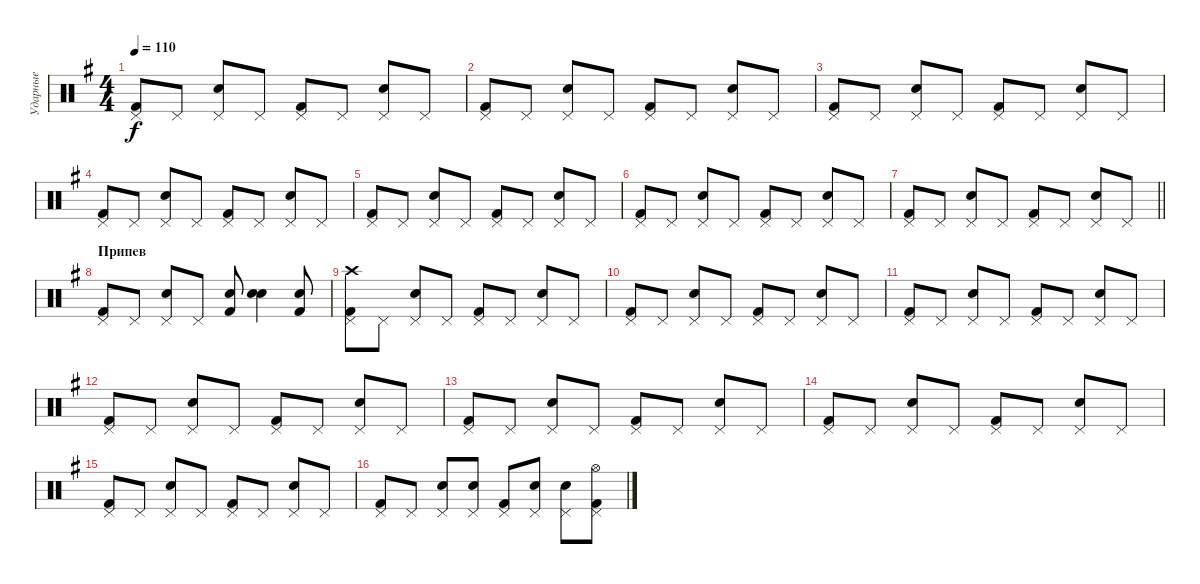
\track ("Ударные" "Ударные") {instrument percussion}
\staff {score}
\articulation defaults
\ts (4 4)
\tempo 110
\clef neutral
\ks eminor
("Kick (hit) 2" "Pedal Hi-Hat (hit)").8{dy f} "Pedal Hi-Hat (hit)".8 ("Snare (hit) 2" "Pedal Hi-Hat (hit)").8 "Pedal Hi-Hat (hit)".8 ("Kick (hit) 2" "Pedal Hi-Hat (hit)").8 "Pedal Hi-Hat (hit)".8 ("Snare (hit) 2" "Pedal Hi-Hat (hit)").8 "Pedal Hi-Hat (hit)".8 |
("Kick (hit) 2" "Pedal Hi-Hat (hit)").8 "Pedal Hi-Hat (hit)".8 ("Snare (hit) 2" "Pedal Hi-Hat (hit)").8 "Pedal Hi-Hat (hit)".8 ("Kick (hit) 2" "Pedal Hi-Hat (hit)").8 "Pedal Hi-Hat (hit)".8 ("Snare (hit) 2" "Pedal Hi-Hat (hit)").8 "Pedal Hi-Hat (hit)".8 |
("Kick (hit) 2" "Pedal Hi-Hat (hit)").8 "Pedal Hi-Hat (hit)".8 ("Snare (hit) 2" "Pedal Hi-Hat (hit)").8 "Pedal Hi-Hat (hit)".8 ("Kick (hit) 2" "Pedal Hi-Hat (hit)").8 "Pedal Hi-Hat (hit)".8 ("Snare (hit) 2" "Pedal Hi-Hat (hit)").8 "Pedal Hi-Hat (hit)".8 |
("Kick (hit) 2" "Pedal Hi-Hat (hit)").8 "Pedal Hi-Hat (hit)".8 ("Snare (hit) 2" "Pedal Hi-Hat (hit)").8 "Pedal Hi-Hat (hit)".8 ("Kick (hit) 2" "Pedal Hi-Hat (hit)").8 "Pedal Hi-Hat (hit)".8 ("Snare (hit) 2" "Pedal Hi-Hat (hit)").8 "Pedal Hi-Hat (hit)".8 |
("Kick (hit) 2" "Pedal Hi-Hat (hit)").8 "Pedal Hi-Hat (hit)".8 ("Snare (hit) 2" "Pedal Hi-Hat (hit)").8 "Pedal Hi-Hat (hit)".8 ("Kick (hit) 2" "Pedal Hi-Hat (hit)").8 "Pedal Hi-Hat (hit)".8 ("Snare (hit) 2" "Pedal Hi-Hat (hit)").8 "Pedal Hi-Hat (hit)".8 |
("Kick (hit) 2" "Pedal Hi-Hat (hit)").8 "Pedal Hi-Hat (hit)".8 ("Snare (hit) 2" "Pedal Hi-Hat (hit)").8 "Pedal Hi-Hat (hit)".8 ("Kick (hit) 2" "Pedal Hi-Hat (hit)").8 "Pedal Hi-Hat (hit)".8 ("Snare (hit) 2" "Pedal Hi-Hat (hit)").8 "Pedal Hi-Hat (hit)".8 |
\barLineRight lightlight
("Kick (hit) 2" "Pedal Hi-Hat (hit)").8 "Pedal Hi-Hat (hit)".8 ("Snare (hit) 2" "Pedal Hi-Hat (hit)").8 "Pedal Hi-Hat (hit)".8 ("Kick (hit) 2" "Pedal Hi-Hat (hit)").8 "Pedal Hi-Hat (hit)".8 ("Snare (hit) 2" "Pedal Hi-Hat (hit)").8 "Pedal Hi-Hat (hit)".8 |
\section ("" "Припев")
("Kick (hit) 2" "Pedal Hi-Hat (hit)").8 "Pedal Hi-Hat (hit)".8 ("Snare (hit) 2" "Pedal Hi-Hat (hit)").8 "Pedal Hi-Hat (hit)".8 ("Kick (hit) 2" "Snare (hit) 2").8 ("Snare (hit) 2" "Snare (hit) 2").4 ("Kick (hit) 2" "Snare (hit) 2").8 |
("Kick (hit) 2" "Crash high (hit)" "Pedal Hi-Hat (hit)").8 "Pedal Hi-Hat (hit)".8 ("Snare (hit) 2" "Pedal Hi-Hat (hit)").8 "Pedal Hi-Hat (hit)".8 ("Kick (hit) 2" "Pedal Hi-Hat (hit)").8 "Pedal Hi-Hat (hit)".8 ("Snare (hit) 2" "Pedal Hi-Hat (hit)").8 "Pedal Hi-Hat (hit)".8 |
("Kick (hit) 2" "Pedal Hi-Hat (hit)").8 "Pedal Hi-Hat (hit)".8 ("Snare (hit) 2" "Pedal Hi-Hat (hit)").8 "Pedal Hi-Hat (hit)".8 ("Kick (hit) 2" "Pedal Hi-Hat (hit)").8 "Pedal Hi-Hat (hit)".8 ("Snare (hit) 2" "Pedal Hi-Hat (hit)").8 "Pedal Hi-Hat (hit)".8 |
("Kick (hit) 2" "Pedal Hi-Hat (hit)").8 "Pedal Hi-Hat (hit)".8 ("Snare (hit) 2" "Pedal Hi-Hat (hit)").8 "Pedal Hi-Hat (hit)".8 ("Kick (hit) 2" "Pedal Hi-Hat (hit)").8 "Pedal Hi-Hat (hit)".8 ("Snare (hit) 2" "Pedal Hi-Hat (hit)").8 "Pedal Hi-Hat (hit)".8 |
("Kick (hit) 2" "Pedal Hi-Hat (hit)").8 "Pedal Hi-Hat (hit)".8 ("Snare (hit) 2" "Pedal Hi-Hat (hit)").8 "Pedal Hi-Hat (hit)".8 ("Kick (hit) 2" "Pedal Hi-Hat (hit)").8 "Pedal Hi-Hat (hit)".8 ("Snare (hit) 2" "Pedal Hi-Hat (hit)").8 "Pedal Hi-Hat (hit)".8 |
("Kick (hit) 2" "Pedal Hi-Hat (hit)").8 "Pedal Hi-Hat (hit)".8 ("Snare (hit) 2" "Pedal Hi-Hat (hit)").8 "Pedal Hi-Hat (hit)".8 ("Kick (hit) 2" "Pedal Hi-Hat (hit)").8 "Pedal Hi-Hat (hit)".8 ("Snare (hit) 2" "Pedal Hi-Hat (hit)").8 "Pedal Hi-Hat (hit)".8 |
("Kick (hit) 2" "Pedal Hi-Hat (hit)").8 "Pedal Hi-Hat (hit)".8 ("Snare (hit) 2" "Pedal Hi-Hat (hit)").8 "Pedal Hi-Hat (hit)".8 ("Kick (hit) 2" "Pedal Hi-Hat (hit)").8 "Pedal Hi-Hat (hit)".8 ("Snare (hit) 2" "Pedal Hi-Hat (hit)").8 "Pedal Hi-Hat (hit)".8 |
("Kick (hit) 2" "Pedal Hi-Hat (hit)").8 "Pedal Hi-Hat (hit)".8 ("Snare (hit) 2" "Pedal Hi-Hat (hit)").8 "Pedal Hi-Hat (hit)".8 ("Kick (hit) 2" "Pedal Hi-Hat (hit)").8 "Pedal Hi-Hat (hit)".8 ("Snare (hit) 2" "Pedal Hi-Hat (hit)").8 "Pedal Hi-Hat (hit)".8 |
("Kick (hit) 2" "Pedal Hi-Hat (hit)").8 "Pedal Hi-Hat (hit)".8 ("Snare (hit) 2" "Pedal Hi-Hat (hit)").8 ("Snare (hit) 2" "Pedal Hi-Hat (hit)").8 ("Kick (hit) 2" "Pedal Hi-Hat (hit)").8 ("Snare (hit) 2" "Pedal Hi-Hat (hit)").8 ("Snare (hit) 2" "Pedal Hi-Hat (hit)").8 ("Hi-Hat (open)" "Kick (hit) 2" "Pedal Hi-Hat (hit)").8
